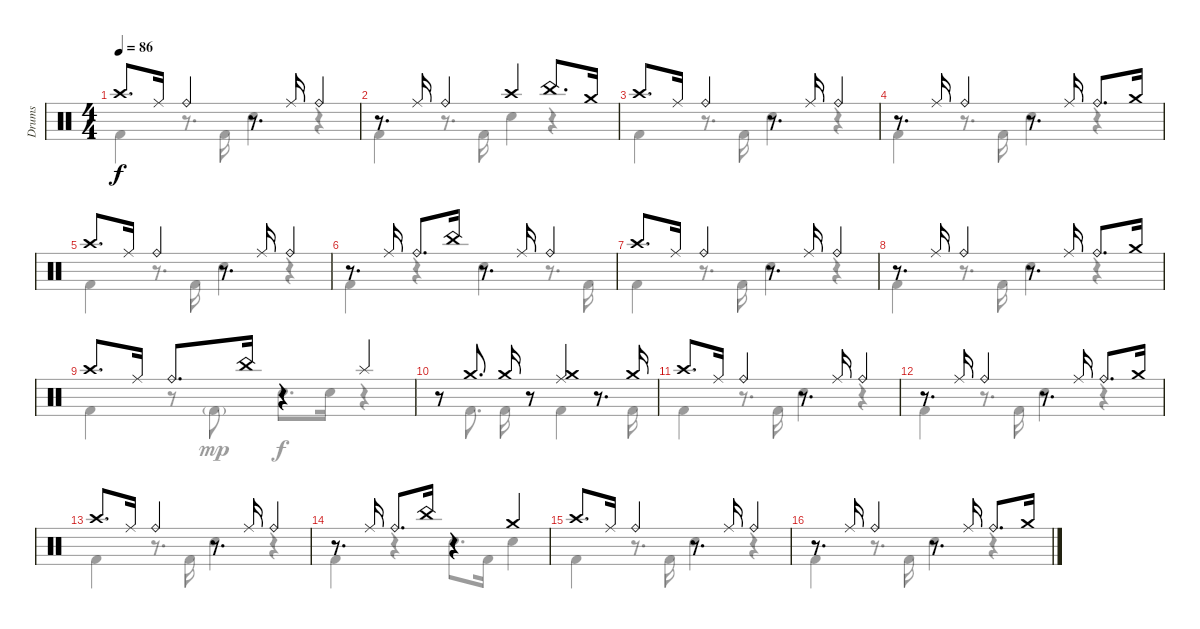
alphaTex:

\track ("Drums" "Drums") {instrument percussion}
\staff {score}
\articulation defaults
\voice
\ts (4 4)
\tempo 86
\clef neutral
\ks c "Crash high (hit)".8{d dy f} "Ride (middle)".16 "Ride (bell)".4
r.8{d} "Ride (middle)".16 "Ride (bell)".4 |
r.8{d} "Ride (middle)".16 "Ride (bell)".4 "Crash high (hit)".4 "China (hit)".8{d} "Crash medium (hit)".16 |
"Crash high (hit)".8{d} "Ride (middle)".16 "Ride (bell)".4 r.8{d} "Ride (middle)".16 "Ride (bell)".4 |
r.8{d} "Ride (middle)".16 "Ride (bell)".4 r.8{d} "Ride (middle)".16 "Ride (bell)".8{d} "Crash medium (hit)".16 |
"Crash high (hit)".8{d} "Ride (middle)".16 "Ride (bell)".4 r.8{d} "Ride (middle)".16 "Ride (bell)".4 |
r.8{d} "Ride (middle)".16 "Ride (bell)".8{d} "China (hit)".16 r.8{d} "Ride (middle)".16 "Ride (bell)".4 |
"Crash high (hit)".8{d} "Ride (middle)".16 "Ride (bell)".4 r.8{d} "Ride (middle)".16 "Ride (bell)".4 |
r.8{d} "Ride (middle)".16 "Ride (bell)".4 r.8{d} "Ride (middle)".16 "Ride (bell)".8{d} "Crash medium (hit)".16 |
"Crash high (hit)".8{d} "Ride (middle)".16 "Ride (bell)".8{d} "China (hit)".16 r.4 "Splash (hit)".4 |
r.8 "Crash medium (hit)".8{d} "Crash medium (hit)".16 r.8 ("Crash medium (hit)" "Ride (middle)").4 r.8{d} "Crash medium (hit)".16 |
"Crash high (hit)".8{d} "Ride (middle)".16 "Ride (bell)".4 r.8{d} "Ride (middle)".16 "Ride (bell)".4 |
r.8{d} "Ride (middle)".16 "Ride (bell)".4 r.8{d} "Ride (middle)".16 "Ride (bell)".8{d} "Crash medium (hit)".16 |
"Crash high (hit)".8{d} "Ride (middle)".16 "Ride (bell)".4 r.8{d} "Ride (middle)".16 "Ride (bell)".4 |
r.8{d} "Ride (middle)".16 "Ride (bell)".8{d} "China (hit)".16 r.4 "Crash medium (hit)".4 |
"Crash high (hit)".8{d} "Ride (middle)".16 "Ride (bell)".4 r.8{d} "Ride (middle)".16 "Ride (bell)".4 |
r.8{d} "Ride (middle)".16 "Ride (bell)".4 r.8{d} "Ride (middle)".16 "Ride (bell)".8{d} "Crash medium (hit)".16
\voice
\clef neutral
\ottava regular
\simile none
\ks c "Kick (hit) 2".4{dy f}
r.8{d} "Kick (hit) 2".16 "Electric Snare (hit)".4 r.4 |
"Kick (hit) 2".4 r.8{d} "Kick (hit) 2".16 "Electric Snare (hit)".4 r.4 |
"Kick (hit) 2".4 r.8{d} "Kick (hit) 2".16 "Electric Snare (hit)".4 r.4 |
"Kick (hit) 2".4 r.8{d} "Kick (hit) 2".16 "Electric Snare (hit)".4 r.4 |
"Kick (hit) 2".4 r.8{d} "Kick (hit) 2".16 "Electric Snare (hit)".4 r.4 |
"Kick (hit) 2".4 r.4 "Electric Snare (hit)".4 r.8{d} "Kick (hit) 2".16 |
"Kick (hit) 2".4 r.8{d} "Kick (hit) 2".16 "Electric Snare (hit)".4 r.4 |
"Kick (hit) 2".4 r.8{d} "Kick (hit) 2".16 "Electric Snare (hit)".4 r.4 |
"Kick (hit) 2".4 r.8 "Kick (hit) 2"{g}.8{dy mp} "Electric Snare (hit)".8{d dy f} "Electric Snare (hit)".16 r.4 |
r.8 "Kick (hit) 2".8{d} "Kick (hit) 2".16 r.8 "Kick (hit) 2".4 r.8{d} "Kick (hit) 2".16 |
"Kick (hit) 2".4 r.8{d} "Kick (hit) 2".16 "Electric Snare (hit)".4 r.4 |
"Kick (hit) 2".4 r.8{d} "Kick (hit) 2".16 "Electric Snare (hit)".4 r.4 |
"Kick (hit) 2".4 r.8{d} "Kick (hit) 2".16 "Electric Snare (hit)".4 r.4 |
"Kick (hit) 2".4 r.4 "Electric Snare (hit)".8{d} "Kick (hit) 2".16 "Electric Snare (hit)".4 |
"Kick (hit) 2".4 r.8{d} "Kick (hit) 2".16 "Electric Snare (hit)".4 r.4 |
"Kick (hit) 2".4 r.8{d} "Kick (hit) 2".16 "Electric Snare (hit)".4 r.4
